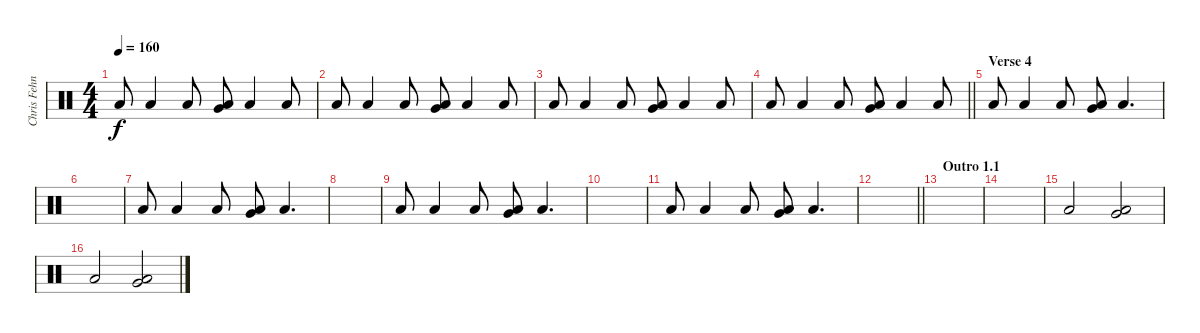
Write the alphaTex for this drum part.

\track ("Chris Fehn" "Chris Fehn") {instrument percussion}
\staff {score}
\articulation defaults
\ts (4 4)
\tempo 160
\clef neutral
\ks c "Low Floor Tom (hit)".8{dy f} "Low Floor Tom (hit)".4 "Low Floor Tom (hit)".8
("Very Low Tom (hit)" "Low Floor Tom (hit)").8 "Low Floor Tom (hit)".4 "Low Floor Tom (hit)".8 |
"Low Floor Tom (hit)".8 "Low Floor Tom (hit)".4 "Low Floor Tom (hit)".8 ("Very Low Tom (hit)" "Low Floor Tom (hit)").8 "Low Floor Tom (hit)".4 "Low Floor Tom (hit)".8 |
"Low Floor Tom (hit)".8 "Low Floor Tom (hit)".4 "Low Floor Tom (hit)".8 ("Very Low Tom (hit)" "Low Floor Tom (hit)").8 "Low Floor Tom (hit)".4 "Low Floor Tom (hit)".8 |
\barLineRight lightlight "Low Floor Tom (hit)".8 "Low Floor Tom (hit)".4 "Low Floor Tom (hit)".8
("Very Low Tom (hit)" "Low Floor Tom (hit)").8 "Low Floor Tom (hit)".4 "Low Floor Tom (hit)".8 |
\section ("" "Verse 4")
"Low Floor Tom (hit)".8 "Low Floor Tom (hit)".4 "Low Floor Tom (hit)".8 ("Very Low Tom (hit)" "Low Floor Tom (hit)").8 "Low Floor Tom (hit)".4{d} |
|
"Low Floor Tom (hit)".8 "Low Floor Tom (hit)".4 "Low Floor Tom (hit)".8 ("Very Low Tom (hit)" "Low Floor Tom (hit)").8 "Low Floor Tom (hit)".4{d} |
|
"Low Floor Tom (hit)".8 "Low Floor Tom (hit)".4 "Low Floor Tom (hit)".8 ("Very Low Tom (hit)" "Low Floor Tom (hit)").8 "Low Floor Tom (hit)".4{d} |
|
"Low Floor Tom (hit)".8 "Low Floor Tom (hit)".4 "Low Floor Tom (hit)".8 ("Very Low Tom (hit)" "Low Floor Tom (hit)").8 "Low Floor Tom (hit)".4{d} |
\barLineRight lightlight
|
\section ("" "Outro 1.1")
|
|
"Low Floor Tom (hit)".2 ("Very Low Tom (hit)" "Low Floor Tom (hit)").2 |
"Low Floor Tom (hit)".2 ("Very Low Tom (hit)" "Low Floor Tom (hit)").2
